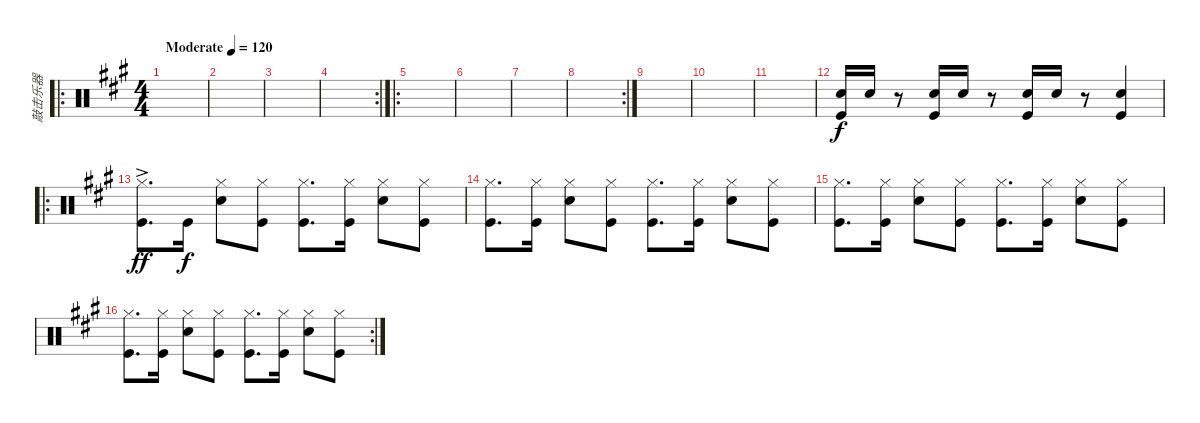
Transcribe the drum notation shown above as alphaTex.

\track ("敲击乐器" "敲击乐器") {instrument percussion}
\staff {score}
\articulation defaults
\ro
\ts (4 4)
\tempo (120 "Moderate")
\clef neutral
\ks a
|
|
|
\rc 2
|
\ro
|
|
|
\rc 2
|
|
|
|
("Snare (hit) 2" "Kick (hit)").16 "Snare (hit) 2".16 r.8 ("Snare (hit) 2" "Kick (hit)").16 "Snare (hit) 2".16 r.8 ("Snare (hit) 2" "Kick (hit)").16 "Snare (hit) 2".16 r.8 ("Snare (hit) 2" "Kick (hit)").4 |
\ro
("Hi-Hat (closed)"{ac} "Kick (hit)").8{d dy ff} "Kick (hit)".16{dy f} ("Hi-Hat (closed)" "Snare (hit) 2").8 ("Hi-Hat (closed)" "Kick (hit)").8 ("Hi-Hat (closed)" "Kick (hit)").8{d} ("Hi-Hat (closed)" "Kick (hit)").16 ("Hi-Hat (closed)" "Snare (hit) 2").8 ("Hi-Hat (closed)" "Kick (hit)").8 |
("Hi-Hat (closed)" "Kick (hit)").8{d} ("Hi-Hat (closed)" "Kick (hit)").16 ("Hi-Hat (closed)" "Snare (hit) 2").8 ("Hi-Hat (closed)" "Kick (hit)").8 ("Hi-Hat (closed)" "Kick (hit)").8{d} ("Hi-Hat (closed)" "Kick (hit)").16 ("Hi-Hat (closed)" "Snare (hit) 2").8 ("Hi-Hat (closed)" "Kick (hit)").8 |
("Hi-Hat (closed)" "Kick (hit)").8{d} ("Hi-Hat (closed)" "Kick (hit)").16 ("Hi-Hat (closed)" "Snare (hit) 2").8 ("Hi-Hat (closed)" "Kick (hit)").8 ("Hi-Hat (closed)" "Kick (hit)").8{d} ("Hi-Hat (closed)" "Kick (hit)").16 ("Hi-Hat (closed)" "Snare (hit) 2").8 ("Hi-Hat (closed)" "Kick (hit)").8 |
\rc 2
("Hi-Hat (closed)" "Kick (hit)").8{d} ("Hi-Hat (closed)" "Kick (hit)").16 ("Hi-Hat (closed)" "Snare (hit) 2").8 ("Hi-Hat (closed)" "Kick (hit)").8 ("Hi-Hat (closed)" "Kick (hit)").8{d} ("Hi-Hat (closed)" "Kick (hit)").16 ("Hi-Hat (closed)" "Snare (hit) 2").8 ("Hi-Hat (closed)" "Kick (hit)").8
